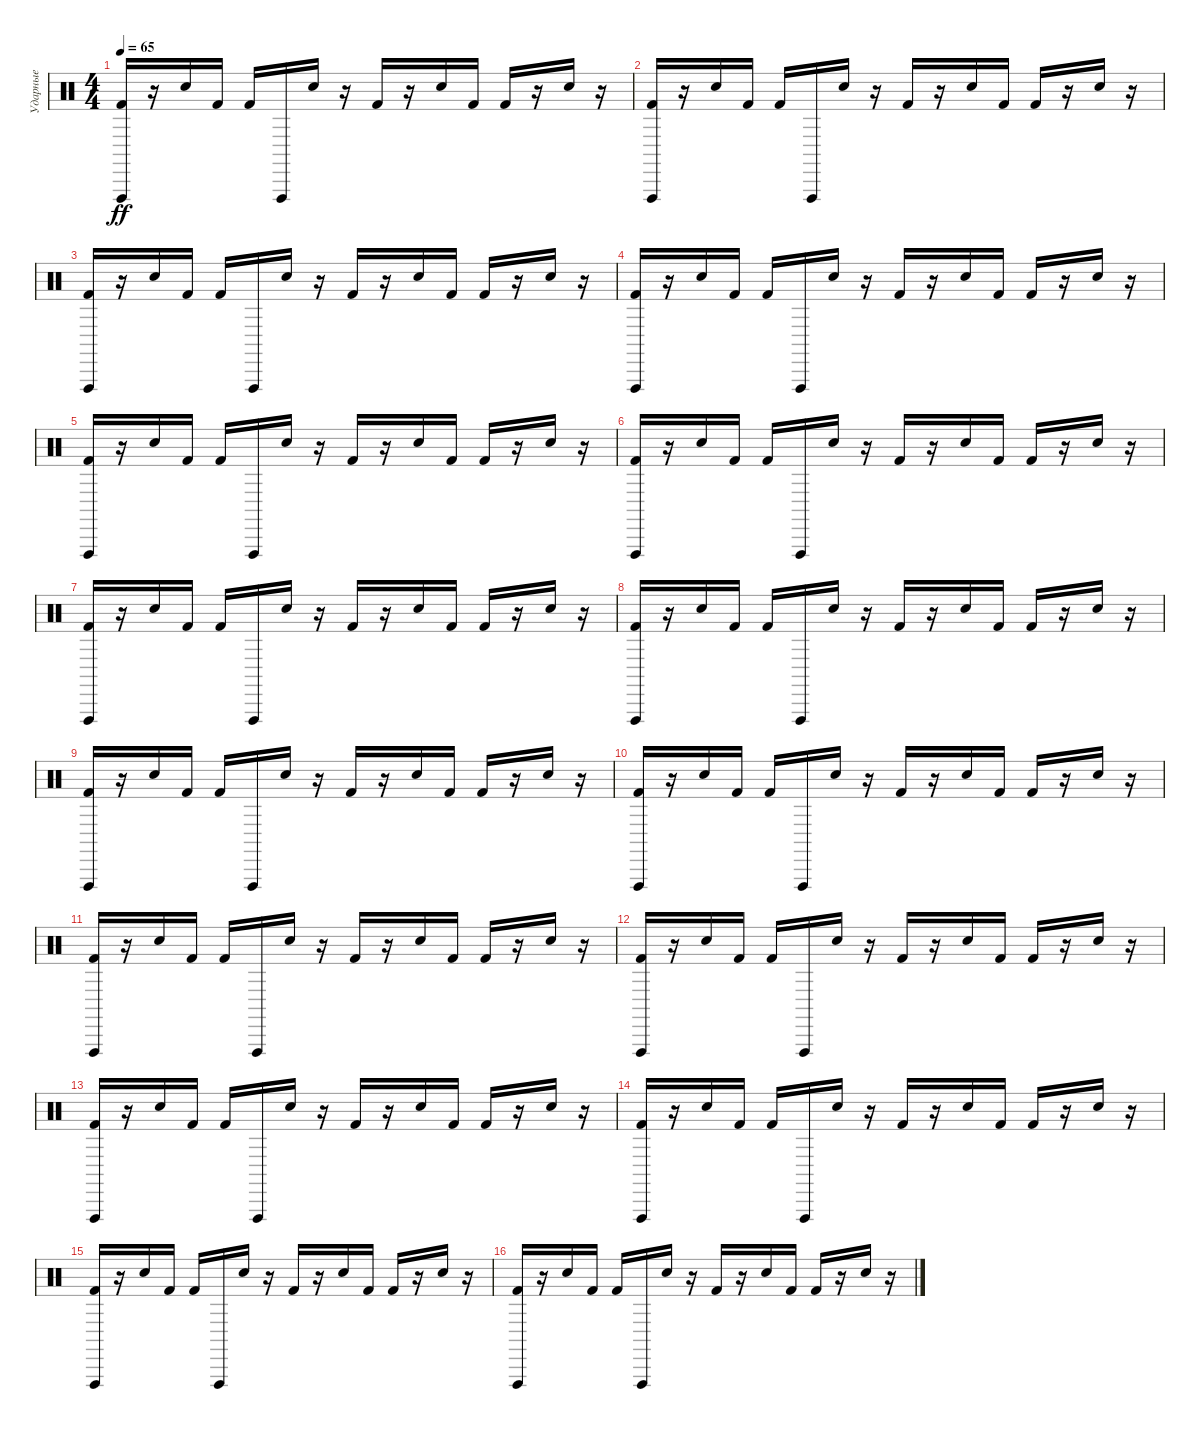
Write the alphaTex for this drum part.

\track ("Ударные" "Ударные") {instrument percussion}
\staff {score}
\articulation defaults
\ts (4 4)
\tempo 65
\clef neutral
\ks c
("Kick (hit) 2" "Vibraslap (hit)").16{dy ff} r.16 "Snare (hit) 2".16 "Kick (hit) 2".16 "Kick (hit) 2".16 "Vibraslap (hit)".16 "Snare (hit) 2".16 r.16 "Kick (hit) 2".16 r.16 "Snare (hit) 2".16 "Kick (hit) 2".16 "Kick (hit) 2".16 r.16 "Snare (hit) 2".16 r.16 |
("Kick (hit) 2" "Vibraslap (hit)").16 r.16 "Snare (hit) 2".16 "Kick (hit) 2".16 "Kick (hit) 2".16 "Vibraslap (hit)".16 "Snare (hit) 2".16 r.16 "Kick (hit) 2".16 r.16 "Snare (hit) 2".16 "Kick (hit) 2".16 "Kick (hit) 2".16 r.16 "Snare (hit) 2".16 r.16 |
("Kick (hit) 2" "Vibraslap (hit)").16 r.16 "Snare (hit) 2".16 "Kick (hit) 2".16 "Kick (hit) 2".16 "Vibraslap (hit)".16 "Snare (hit) 2".16 r.16 "Kick (hit) 2".16 r.16 "Snare (hit) 2".16 "Kick (hit) 2".16 "Kick (hit) 2".16 r.16 "Snare (hit) 2".16 r.16 |
("Kick (hit) 2" "Vibraslap (hit)").16 r.16 "Snare (hit) 2".16 "Kick (hit) 2".16 "Kick (hit) 2".16 "Vibraslap (hit)".16 "Snare (hit) 2".16 r.16 "Kick (hit) 2".16 r.16 "Snare (hit) 2".16 "Kick (hit) 2".16 "Kick (hit) 2".16 r.16 "Snare (hit) 2".16 r.16 |
("Kick (hit) 2" "Vibraslap (hit)").16 r.16 "Snare (hit) 2".16 "Kick (hit) 2".16 "Kick (hit) 2".16 "Vibraslap (hit)".16 "Snare (hit) 2".16 r.16 "Kick (hit) 2".16 r.16 "Snare (hit) 2".16 "Kick (hit) 2".16 "Kick (hit) 2".16 r.16 "Snare (hit) 2".16 r.16 |
("Kick (hit) 2" "Vibraslap (hit)").16 r.16 "Snare (hit) 2".16 "Kick (hit) 2".16 "Kick (hit) 2".16 "Vibraslap (hit)".16 "Snare (hit) 2".16 r.16 "Kick (hit) 2".16 r.16 "Snare (hit) 2".16 "Kick (hit) 2".16 "Kick (hit) 2".16 r.16 "Snare (hit) 2".16 r.16 |
("Kick (hit) 2" "Vibraslap (hit)").16 r.16 "Snare (hit) 2".16 "Kick (hit) 2".16 "Kick (hit) 2".16 "Vibraslap (hit)".16 "Snare (hit) 2".16 r.16 "Kick (hit) 2".16 r.16 "Snare (hit) 2".16 "Kick (hit) 2".16 "Kick (hit) 2".16 r.16 "Snare (hit) 2".16 r.16 |
("Kick (hit) 2" "Vibraslap (hit)").16 r.16 "Snare (hit) 2".16 "Kick (hit) 2".16 "Kick (hit) 2".16 "Vibraslap (hit)".16 "Snare (hit) 2".16 r.16 "Kick (hit) 2".16 r.16 "Snare (hit) 2".16 "Kick (hit) 2".16 "Kick (hit) 2".16 r.16 "Snare (hit) 2".16 r.16 |
("Kick (hit) 2" "Vibraslap (hit)").16 r.16 "Snare (hit) 2".16 "Kick (hit) 2".16 "Kick (hit) 2".16 "Vibraslap (hit)".16 "Snare (hit) 2".16 r.16 "Kick (hit) 2".16 r.16 "Snare (hit) 2".16 "Kick (hit) 2".16 "Kick (hit) 2".16 r.16 "Snare (hit) 2".16 r.16 |
("Kick (hit) 2" "Vibraslap (hit)").16 r.16 "Snare (hit) 2".16 "Kick (hit) 2".16 "Kick (hit) 2".16 "Vibraslap (hit)".16 "Snare (hit) 2".16 r.16 "Kick (hit) 2".16 r.16 "Snare (hit) 2".16 "Kick (hit) 2".16 "Kick (hit) 2".16 r.16 "Snare (hit) 2".16 r.16 |
("Kick (hit) 2" "Vibraslap (hit)").16 r.16 "Snare (hit) 2".16 "Kick (hit) 2".16 "Kick (hit) 2".16 "Vibraslap (hit)".16 "Snare (hit) 2".16 r.16 "Kick (hit) 2".16 r.16 "Snare (hit) 2".16 "Kick (hit) 2".16 "Kick (hit) 2".16 r.16 "Snare (hit) 2".16 r.16 |
("Kick (hit) 2" "Vibraslap (hit)").16 r.16 "Snare (hit) 2".16 "Kick (hit) 2".16 "Kick (hit) 2".16 "Vibraslap (hit)".16 "Snare (hit) 2".16 r.16 "Kick (hit) 2".16 r.16 "Snare (hit) 2".16 "Kick (hit) 2".16 "Kick (hit) 2".16 r.16 "Snare (hit) 2".16 r.16 |
("Kick (hit) 2" "Vibraslap (hit)").16 r.16 "Snare (hit) 2".16 "Kick (hit) 2".16 "Kick (hit) 2".16 "Vibraslap (hit)".16 "Snare (hit) 2".16 r.16 "Kick (hit) 2".16 r.16 "Snare (hit) 2".16 "Kick (hit) 2".16 "Kick (hit) 2".16 r.16 "Snare (hit) 2".16 r.16 |
("Kick (hit) 2" "Vibraslap (hit)").16 r.16 "Snare (hit) 2".16 "Kick (hit) 2".16 "Kick (hit) 2".16 "Vibraslap (hit)".16 "Snare (hit) 2".16 r.16 "Kick (hit) 2".16 r.16 "Snare (hit) 2".16 "Kick (hit) 2".16 "Kick (hit) 2".16 r.16 "Snare (hit) 2".16 r.16 |
("Kick (hit) 2" "Vibraslap (hit)").16 r.16 "Snare (hit) 2".16 "Kick (hit) 2".16 "Kick (hit) 2".16 "Vibraslap (hit)".16 "Snare (hit) 2".16 r.16 "Kick (hit) 2".16 r.16 "Snare (hit) 2".16 "Kick (hit) 2".16 "Kick (hit) 2".16 r.16 "Snare (hit) 2".16 r.16 |
("Kick (hit) 2" "Vibraslap (hit)").16 r.16 "Snare (hit) 2".16 "Kick (hit) 2".16 "Kick (hit) 2".16 "Vibraslap (hit)".16 "Snare (hit) 2".16 r.16 "Kick (hit) 2".16 r.16 "Snare (hit) 2".16 "Kick (hit) 2".16 "Kick (hit) 2".16 r.16 "Snare (hit) 2".16 r.16
